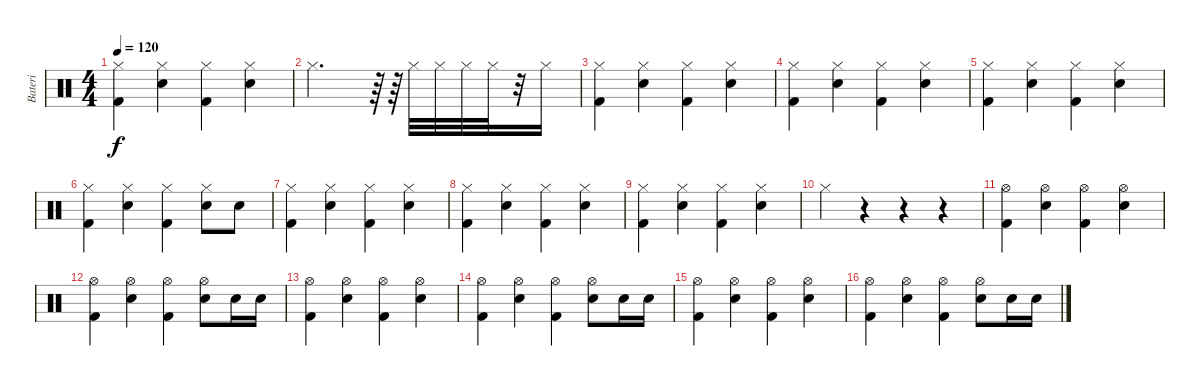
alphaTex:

\track ("Bateri" "Bateri") {instrument percussion}
\staff {score}
\articulation defaults
\ts (4 4)
\tempo 120
\clef neutral
\ks c
("Kick (hit) 2" "Hi-Hat (closed)").4{dy f} ("Electric Snare (hit)" "Hi-Hat (closed)").4 ("Kick (hit) 2" "Hi-Hat (closed)").4 ("Electric Snare (hit)" "Hi-Hat (closed)").4 |
"Hi-Hat (closed)".2{d} r.64 r.64 "Hi-Hat (closed)".32 "Hi-Hat (closed)".32 "Hi-Hat (closed)".32 "Hi-Hat (closed)".32 r.32 "Hi-Hat (closed)".16 |
("Kick (hit) 2" "Hi-Hat (closed)").4 ("Electric Snare (hit)" "Hi-Hat (closed)").4 ("Kick (hit) 2" "Hi-Hat (closed)").4 ("Electric Snare (hit)" "Hi-Hat (closed)").4 |
("Kick (hit) 2" "Hi-Hat (closed)").4 ("Electric Snare (hit)" "Hi-Hat (closed)").4 ("Kick (hit) 2" "Hi-Hat (closed)").4 ("Electric Snare (hit)" "Hi-Hat (closed)").4 |
("Kick (hit) 2" "Hi-Hat (closed)").4 ("Electric Snare (hit)" "Hi-Hat (closed)").4 ("Kick (hit) 2" "Hi-Hat (closed)").4 ("Electric Snare (hit)" "Hi-Hat (closed)").4 |
("Kick (hit) 2" "Hi-Hat (closed)").4 ("Electric Snare (hit)" "Hi-Hat (closed)").4 ("Kick (hit) 2" "Hi-Hat (closed)").4 ("Electric Snare (hit)" "Hi-Hat (closed)").8 "Electric Snare (hit)".8 |
("Kick (hit) 2" "Hi-Hat (closed)").4 ("Electric Snare (hit)" "Hi-Hat (closed)").4 ("Kick (hit) 2" "Hi-Hat (closed)").4 ("Electric Snare (hit)" "Hi-Hat (closed)").4 |
("Kick (hit) 2" "Hi-Hat (closed)").4 ("Electric Snare (hit)" "Hi-Hat (closed)").4 ("Kick (hit) 2" "Hi-Hat (closed)").4 ("Electric Snare (hit)" "Hi-Hat (closed)").4 |
("Kick (hit) 2" "Hi-Hat (closed)").4 ("Electric Snare (hit)" "Hi-Hat (closed)").4 ("Kick (hit) 2" "Hi-Hat (closed)").4 ("Electric Snare (hit)" "Hi-Hat (closed)").4 |
"Hi-Hat (closed)".4 r.4 r.4 r.4 |
("Kick (hit) 2" "Hi-Hat (open)").4 ("Electric Snare (hit)" "Hi-Hat (open)").4 ("Kick (hit) 2" "Hi-Hat (open)").4 ("Electric Snare (hit)" "Hi-Hat (open)").4 |
("Kick (hit) 2" "Hi-Hat (open)").4 ("Electric Snare (hit)" "Hi-Hat (open)").4 ("Kick (hit) 2" "Hi-Hat (open)").4 ("Electric Snare (hit)" "Hi-Hat (open)").8 "Electric Snare (hit)".16 "Electric Snare (hit)".16 |
("Kick (hit) 2" "Hi-Hat (open)").4 ("Electric Snare (hit)" "Hi-Hat (open)").4 ("Kick (hit) 2" "Hi-Hat (open)").4 ("Electric Snare (hit)" "Hi-Hat (open)").4 |
("Kick (hit) 2" "Hi-Hat (open)").4 ("Electric Snare (hit)" "Hi-Hat (open)").4 ("Kick (hit) 2" "Hi-Hat (open)").4 ("Electric Snare (hit)" "Hi-Hat (open)").8 "Electric Snare (hit)".16 "Electric Snare (hit)".16 |
("Kick (hit) 2" "Hi-Hat (open)").4 ("Electric Snare (hit)" "Hi-Hat (open)").4 ("Kick (hit) 2" "Hi-Hat (open)").4 ("Electric Snare (hit)" "Hi-Hat (open)").4 |
("Kick (hit) 2" "Hi-Hat (open)").4 ("Electric Snare (hit)" "Hi-Hat (open)").4 ("Kick (hit) 2" "Hi-Hat (open)").4 ("Electric Snare (hit)" "Hi-Hat (open)").8 "Electric Snare (hit)".16 "Electric Snare (hit)".16
